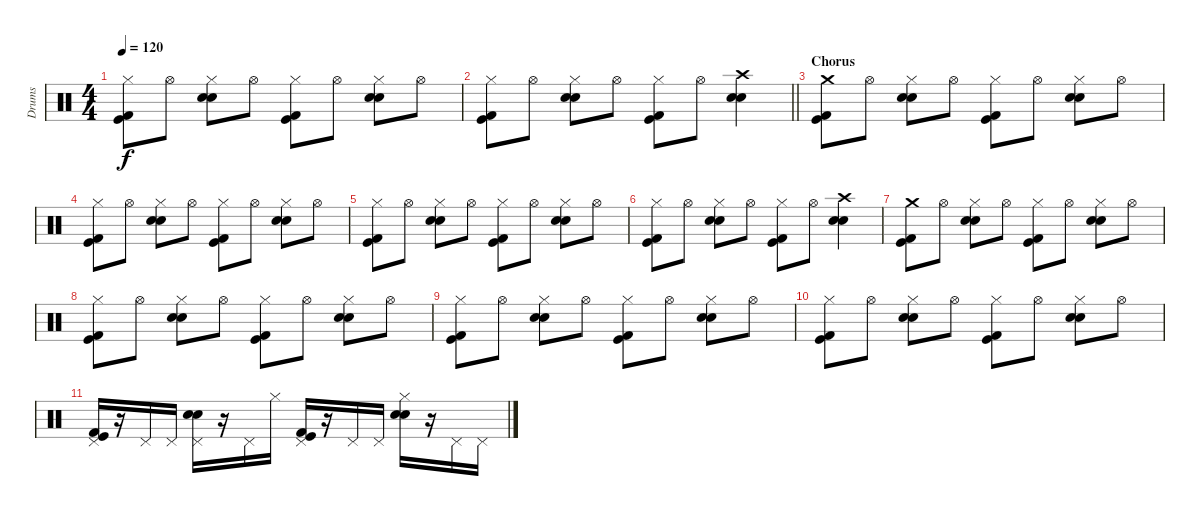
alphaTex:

\track ("Drums" "Drums") {instrument percussion}
\staff {score}
\articulation defaults
\ts (4 4)
\tempo 120
\clef neutral
\ks c
("Hi-Hat (closed)" "Kick (hit) 2" "Kick (hit)").8{dy f} "Hi-Hat (open)".8 ("Hi-Hat (closed)" "Electric Snare (hit)" "Electric Snare (hit)").8 "Hi-Hat (open)".8 ("Hi-Hat (closed)" "Kick (hit) 2" "Kick (hit)").8 "Hi-Hat (open)".8 ("Hi-Hat (closed)" "Electric Snare (hit)" "Electric Snare (hit)").8 "Hi-Hat (open)".8 |
\barLineRight lightlight
("Hi-Hat (closed)" "Kick (hit) 2" "Kick (hit)").8 "Hi-Hat (open)".8 ("Hi-Hat (closed)" "Electric Snare (hit)" "Electric Snare (hit)").8 "Hi-Hat (open)".8 ("Hi-Hat (closed)" "Kick (hit) 2" "Kick (hit)").8 "Hi-Hat (open)".8 ("Crash high (hit)" "Electric Snare (hit)" "Electric Snare (hit)").4 |
\section ("" "Chorus")
("Crash medium (hit)" "Kick (hit) 2" "Kick (hit)").8 "Hi-Hat (open)".8 ("Hi-Hat (closed)" "Electric Snare (hit)" "Electric Snare (hit)").8 "Hi-Hat (open)".8 ("Hi-Hat (closed)" "Kick (hit) 2" "Kick (hit)").8 "Hi-Hat (open)".8 ("Hi-Hat (closed)" "Electric Snare (hit)" "Electric Snare (hit)").8 "Hi-Hat (open)".8 |
("Hi-Hat (closed)" "Kick (hit) 2" "Kick (hit)").8 "Hi-Hat (open)".8 ("Hi-Hat (closed)" "Electric Snare (hit)" "Electric Snare (hit)").8 "Hi-Hat (open)".8 ("Hi-Hat (closed)" "Kick (hit) 2" "Kick (hit)").8 "Hi-Hat (open)".8 ("Hi-Hat (closed)" "Electric Snare (hit)" "Electric Snare (hit)").8 "Hi-Hat (open)".8 |
("Hi-Hat (closed)" "Kick (hit) 2" "Kick (hit)").8 "Hi-Hat (open)".8 ("Hi-Hat (closed)" "Electric Snare (hit)" "Electric Snare (hit)").8 "Hi-Hat (open)".8 ("Hi-Hat (closed)" "Kick (hit) 2" "Kick (hit)").8 "Hi-Hat (open)".8 ("Hi-Hat (closed)" "Electric Snare (hit)" "Electric Snare (hit)").8 "Hi-Hat (open)".8 |
("Hi-Hat (closed)" "Kick (hit) 2" "Kick (hit)").8 "Hi-Hat (open)".8 ("Hi-Hat (closed)" "Electric Snare (hit)" "Electric Snare (hit)").8 "Hi-Hat (open)".8 ("Hi-Hat (closed)" "Kick (hit) 2" "Kick (hit)").8 "Hi-Hat (open)".8 ("Crash high (hit)" "Electric Snare (hit)" "Electric Snare (hit)").4 |
("Crash medium (hit)" "Kick (hit) 2" "Kick (hit)").8 "Hi-Hat (open)".8 ("Hi-Hat (closed)" "Electric Snare (hit)" "Electric Snare (hit)").8 "Hi-Hat (open)".8 ("Hi-Hat (closed)" "Kick (hit) 2" "Kick (hit)").8 "Hi-Hat (open)".8 ("Hi-Hat (closed)" "Electric Snare (hit)" "Electric Snare (hit)").8 "Hi-Hat (open)".8 |
("Hi-Hat (closed)" "Kick (hit) 2" "Kick (hit)").8 "Hi-Hat (open)".8 ("Hi-Hat (closed)" "Electric Snare (hit)" "Electric Snare (hit)").8 "Hi-Hat (open)".8 ("Hi-Hat (closed)" "Kick (hit) 2" "Kick (hit)").8 "Hi-Hat (open)".8 ("Hi-Hat (closed)" "Electric Snare (hit)" "Electric Snare (hit)").8 "Hi-Hat (open)".8 |
("Hi-Hat (closed)" "Kick (hit) 2" "Kick (hit)").8 "Hi-Hat (open)".8 ("Hi-Hat (closed)" "Electric Snare (hit)" "Electric Snare (hit)").8 "Hi-Hat (open)".8 ("Hi-Hat (closed)" "Kick (hit) 2" "Kick (hit)").8 "Hi-Hat (open)".8 ("Hi-Hat (closed)" "Electric Snare (hit)" "Electric Snare (hit)").8 "Hi-Hat (open)".8 |
("Hi-Hat (closed)" "Kick (hit) 2" "Kick (hit)").8 "Hi-Hat (open)".8 ("Hi-Hat (closed)" "Electric Snare (hit)" "Electric Snare (hit)").8 "Hi-Hat (open)".8 ("Hi-Hat (closed)" "Kick (hit) 2" "Kick (hit)").8 "Hi-Hat (open)".8 ("Hi-Hat (closed)" "Electric Snare (hit)" "Electric Snare (hit)").8 "Hi-Hat (open)".8 |
("Pedal Hi-Hat (hit)" "Kick (hit)" "Kick (hit) 2").16 r.16 "Pedal Hi-Hat (hit)".16 "Pedal Hi-Hat (hit)".16 ("Pedal Hi-Hat (hit)" "Electric Snare (hit)" "Electric Snare (hit)").16 r.16 "Pedal Hi-Hat (hit)".16 "Hi-Hat (closed)".16 ("Pedal Hi-Hat (hit)" "Kick (hit)" "Kick (hit) 2").16 r.16 "Pedal Hi-Hat (hit)".16 "Pedal Hi-Hat (hit)".16 ("Hi-Hat (closed)" "Electric Snare (hit)" "Electric Snare (hit)").16 r.16 "Pedal Hi-Hat (hit)".16 "Pedal Hi-Hat (hit)".16
